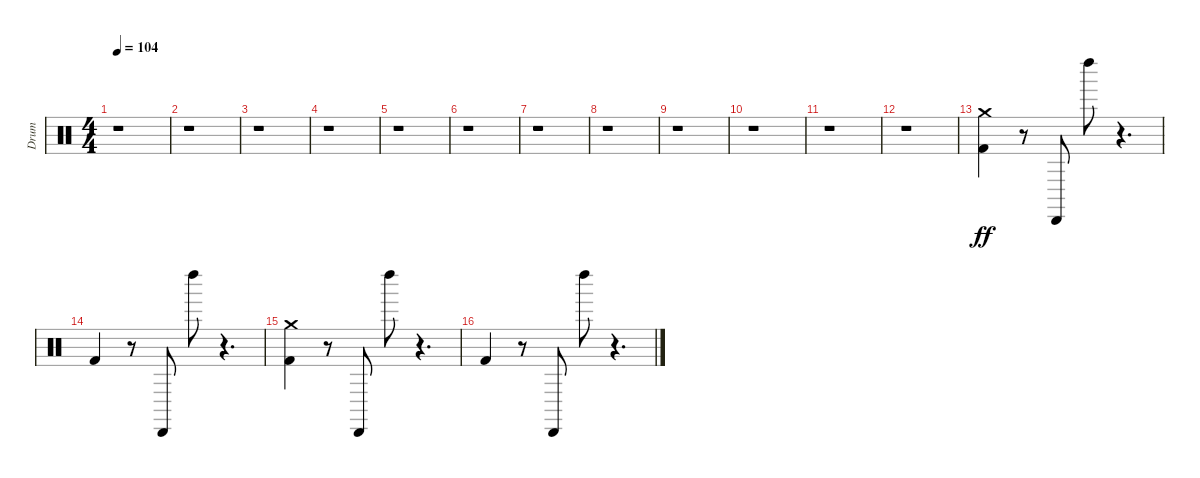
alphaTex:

\track ("Drum" "Drum") {instrument percussion}
\staff {score}
\articulation defaults
\ts (4 4)
\tempo 104
\clef neutral
\ks c
r.1{dy ff} |
r.1 |
r.1 |
r.1 |
r.1 |
r.1 |
r.1 |
r.1 |
r.1 |
r.1 |
r.1 |
r.1 |
("Crash medium (hit)" "Kick (hit) 2").4 r.8 "Cabasa (hit)".8 "Left Maraca (hit)".8 r.4{d} |
"Kick (hit) 2".4 r.8 "Cabasa (hit)".8 "Left Maraca (hit)".8 r.4{d} |
("Crash medium (hit)" "Kick (hit) 2").4 r.8 "Cabasa (hit)".8 "Left Maraca (hit)".8 r.4{d} |
"Kick (hit) 2".4 r.8 "Cabasa (hit)".8 "Left Maraca (hit)".8 r.4{d}
